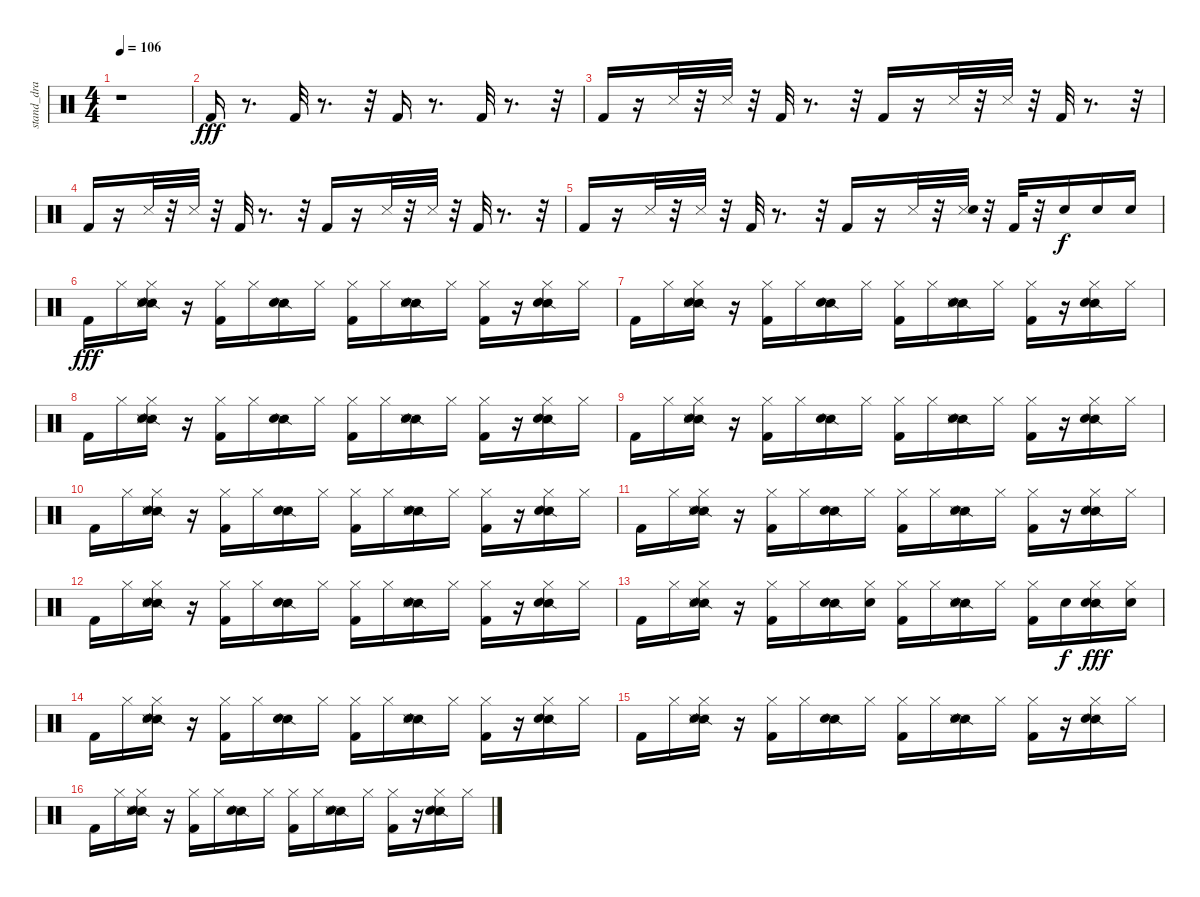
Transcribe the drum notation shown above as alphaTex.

\track ("stand_dra" "stand_dra") {instrument percussion}
\staff {score}
\articulation defaults
\ts (4 4)
\tempo 106
\clef neutral
\ks c
r.1{dy fff} |
"Kick (hit) 2".16 r.8{d} "Kick (hit) 2".32 r.8{d} r.32 "Kick (hit) 2".16 r.8{d} "Kick (hit) 2".32 r.8{d} r.32 |
"Kick (hit) 2".16 r.16 "Metronome (hit)".32 r.32 "Snare (side stick) 3".32 r.32 "Kick (hit) 2".32 r.8{d} r.32 "Kick (hit) 2".16 r.16 "Metronome (hit)".32 r.32 "Snare (side stick) 3".32 r.32 "Kick (hit) 2".32 r.8{d} r.32 |
"Kick (hit) 2".16 r.16 "Metronome (hit)".32 r.32 "Snare (side stick) 3".32 r.32 "Kick (hit) 2".32 r.8{d} r.32 "Kick (hit) 2".16 r.16 "Metronome (hit)".32 r.32 "Snare (side stick) 3".32 r.32 "Kick (hit) 2".32 r.8{d} r.32 |
"Kick (hit) 2".16 r.16 "Metronome (hit)".32 r.32 "Snare (side stick) 3".32 r.32 "Kick (hit) 2".32 r.8{d} r.32 "Kick (hit) 2".16 r.16 "Metronome (hit)".32 r.32 ("Snare (side stick) 3" "Snare (hit) 2").32 r.32 "Kick (hit) 2".32 r.32 "Snare (hit) 2".16{dy f} "Snare (hit) 2".16 "Snare (hit) 2".16 |
"Kick (hit) 2".16{dy fff} "Hi-Hat (closed)".16 ("Snare (side stick) 2" "Metronome (hit)" "Snare (hit) 2" "Hi-Hat (closed)").16 r.16 ("Kick (hit) 2" "Hi-Hat (closed)").16 "Hi-Hat (closed)".16 ("Snare (side stick) 2" "Snare (hit) 2").16 "Hi-Hat (closed)".16 ("Kick (hit) 2" "Hi-Hat (closed)").16 "Hi-Hat (closed)".16 ("Snare (side stick) 2" "Metronome (hit)" "Snare (hit) 2").16 "Hi-Hat (closed)".16 ("Kick (hit) 2" "Hi-Hat (closed)").16 r.16 ("Snare (side stick) 2" "Snare (hit) 2" "Hi-Hat (closed)").16 "Hi-Hat (closed)".16 |
"Kick (hit) 2".16 "Hi-Hat (closed)".16 ("Snare (side stick) 2" "Metronome (hit)" "Snare (hit) 2" "Hi-Hat (closed)").16 r.16 ("Kick (hit) 2" "Hi-Hat (closed)").16 "Hi-Hat (closed)".16 ("Snare (side stick) 2" "Snare (hit) 2").16 "Hi-Hat (closed)".16 ("Kick (hit) 2" "Hi-Hat (closed)").16 "Hi-Hat (closed)".16 ("Snare (side stick) 2" "Metronome (hit)" "Snare (hit) 2").16 "Hi-Hat (closed)".16 ("Kick (hit) 2" "Hi-Hat (closed)").16 r.16 ("Snare (side stick) 2" "Snare (hit) 2" "Hi-Hat (closed)").16 "Hi-Hat (closed)".16 |
"Kick (hit) 2".16 "Hi-Hat (closed)".16 ("Snare (side stick) 2" "Metronome (hit)" "Snare (hit) 2" "Hi-Hat (closed)").16 r.16 ("Kick (hit) 2" "Hi-Hat (closed)").16 "Hi-Hat (closed)".16 ("Snare (side stick) 2" "Snare (hit) 2").16 "Hi-Hat (closed)".16 ("Kick (hit) 2" "Hi-Hat (closed)").16 "Hi-Hat (closed)".16 ("Snare (side stick) 2" "Metronome (hit)" "Snare (hit) 2").16 "Hi-Hat (closed)".16 ("Kick (hit) 2" "Hi-Hat (closed)").16 r.16 ("Snare (side stick) 2" "Snare (hit) 2" "Hi-Hat (closed)").16 "Hi-Hat (closed)".16 |
"Kick (hit) 2".16 "Hi-Hat (closed)".16 ("Snare (side stick) 2" "Metronome (hit)" "Snare (hit) 2" "Hi-Hat (closed)").16 r.16 ("Kick (hit) 2" "Hi-Hat (closed)").16 "Hi-Hat (closed)".16 ("Snare (side stick) 2" "Snare (hit) 2").16 "Hi-Hat (closed)".16 ("Kick (hit) 2" "Hi-Hat (closed)").16 "Hi-Hat (closed)".16 ("Snare (side stick) 2" "Metronome (hit)" "Snare (hit) 2").16 "Hi-Hat (closed)".16 ("Kick (hit) 2" "Hi-Hat (closed)").16 r.16 ("Snare (side stick) 2" "Snare (hit) 2" "Hi-Hat (closed)").16 "Hi-Hat (closed)".16 |
"Kick (hit) 2".16 "Hi-Hat (closed)".16 ("Snare (side stick) 2" "Metronome (hit)" "Snare (hit) 2" "Hi-Hat (closed)").16 r.16 ("Kick (hit) 2" "Hi-Hat (closed)").16 "Hi-Hat (closed)".16 ("Snare (side stick) 2" "Snare (hit) 2").16 "Hi-Hat (closed)".16 ("Kick (hit) 2" "Hi-Hat (closed)").16 "Hi-Hat (closed)".16 ("Snare (side stick) 2" "Metronome (hit)" "Snare (hit) 2").16 "Hi-Hat (closed)".16 ("Kick (hit) 2" "Hi-Hat (closed)").16 r.16 ("Snare (side stick) 2" "Snare (hit) 2" "Hi-Hat (closed)").16 "Hi-Hat (closed)".16 |
"Kick (hit) 2".16 "Hi-Hat (closed)".16 ("Snare (side stick) 2" "Metronome (hit)" "Snare (hit) 2" "Hi-Hat (closed)").16 r.16 ("Kick (hit) 2" "Hi-Hat (closed)").16 "Hi-Hat (closed)".16 ("Snare (side stick) 2" "Snare (hit) 2").16 "Hi-Hat (closed)".16 ("Kick (hit) 2" "Hi-Hat (closed)").16 "Hi-Hat (closed)".16 ("Snare (side stick) 2" "Metronome (hit)" "Snare (hit) 2").16 "Hi-Hat (closed)".16 ("Kick (hit) 2" "Hi-Hat (closed)").16 r.16 ("Snare (side stick) 2" "Snare (hit) 2" "Hi-Hat (closed)").16 "Hi-Hat (closed)".16 |
"Kick (hit) 2".16 "Hi-Hat (closed)".16 ("Snare (side stick) 2" "Metronome (hit)" "Snare (hit) 2" "Hi-Hat (closed)").16 r.16 ("Kick (hit) 2" "Hi-Hat (closed)").16 "Hi-Hat (closed)".16 ("Snare (side stick) 2" "Snare (hit) 2").16 "Hi-Hat (closed)".16 ("Kick (hit) 2" "Hi-Hat (closed)").16 "Hi-Hat (closed)".16 ("Snare (side stick) 2" "Metronome (hit)" "Snare (hit) 2").16 "Hi-Hat (closed)".16 ("Kick (hit) 2" "Hi-Hat (closed)").16 r.16 ("Snare (side stick) 2" "Snare (hit) 2" "Hi-Hat (closed)").16 "Hi-Hat (closed)".16 |
"Kick (hit) 2".16 "Hi-Hat (closed)".16 ("Snare (side stick) 2" "Metronome (hit)" "Snare (hit) 2" "Hi-Hat (closed)").16 r.16 ("Kick (hit) 2" "Hi-Hat (closed)").16 "Hi-Hat (closed)".16 ("Snare (side stick) 2" "Snare (hit) 2").16 ("Snare (hit) 2" "Hi-Hat (closed)").16 ("Kick (hit) 2" "Hi-Hat (closed)").16 "Hi-Hat (closed)".16 ("Snare (side stick) 2" "Metronome (hit)" "Snare (hit) 2").16 "Hi-Hat (closed)".16 ("Kick (hit) 2" "Hi-Hat (closed)").16 "Snare (hit) 2".16{dy f} ("Snare (side stick) 2" "Snare (hit) 2" "Hi-Hat (closed)").16{dy fff} ("Snare (hit) 2" "Hi-Hat (closed)").16 |
"Kick (hit) 2".16 "Hi-Hat (closed)".16 ("Snare (side stick) 2" "Metronome (hit)" "Snare (hit) 2" "Hi-Hat (closed)").16 r.16 ("Kick (hit) 2" "Hi-Hat (closed)").16 "Hi-Hat (closed)".16 ("Snare (side stick) 2" "Snare (hit) 2").16 "Hi-Hat (closed)".16 ("Kick (hit) 2" "Hi-Hat (closed)").16 "Hi-Hat (closed)".16 ("Snare (side stick) 2" "Metronome (hit)" "Snare (hit) 2").16 "Hi-Hat (closed)".16 ("Kick (hit) 2" "Hi-Hat (closed)").16 r.16 ("Snare (side stick) 2" "Snare (hit) 2" "Hi-Hat (closed)").16 "Hi-Hat (closed)".16 |
"Kick (hit) 2".16 "Hi-Hat (closed)".16 ("Snare (side stick) 2" "Metronome (hit)" "Snare (hit) 2" "Hi-Hat (closed)").16 r.16 ("Kick (hit) 2" "Hi-Hat (closed)").16 "Hi-Hat (closed)".16 ("Snare (side stick) 2" "Snare (hit) 2").16 "Hi-Hat (closed)".16 ("Kick (hit) 2" "Hi-Hat (closed)").16 "Hi-Hat (closed)".16 ("Snare (side stick) 2" "Metronome (hit)" "Snare (hit) 2").16 "Hi-Hat (closed)".16 ("Kick (hit) 2" "Hi-Hat (closed)").16 r.16 ("Snare (side stick) 2" "Snare (hit) 2" "Hi-Hat (closed)").16 "Hi-Hat (closed)".16 |
"Kick (hit) 2".16 "Hi-Hat (closed)".16 ("Snare (side stick) 2" "Metronome (hit)" "Snare (hit) 2" "Hi-Hat (closed)").16 r.16 ("Kick (hit) 2" "Hi-Hat (closed)").16 "Hi-Hat (closed)".16 ("Snare (side stick) 2" "Snare (hit) 2").16 "Hi-Hat (closed)".16 ("Kick (hit) 2" "Hi-Hat (closed)").16 "Hi-Hat (closed)".16 ("Snare (side stick) 2" "Metronome (hit)" "Snare (hit) 2").16 "Hi-Hat (closed)".16 ("Kick (hit) 2" "Hi-Hat (closed)").16 r.16 ("Snare (side stick) 2" "Snare (hit) 2" "Hi-Hat (closed)").16 "Hi-Hat (closed)".16
